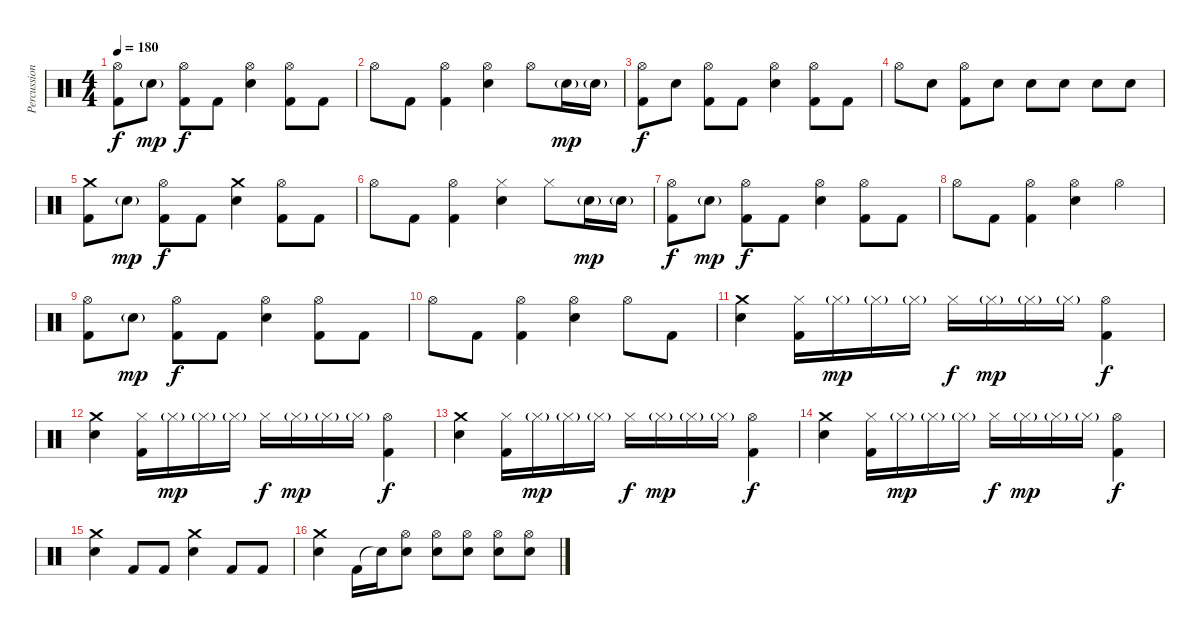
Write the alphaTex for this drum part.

\track ("Percussion" "Percussion") {instrument percussion}
\staff {score}
\articulation defaults
\ts (4 4)
\tempo 180
\clef neutral
\ks c
("Hi-Hat (open)" "Kick (hit) 2").8{dy f} "Electric Snare (hit)"{g}.8{dy mp} ("Hi-Hat (open)" "Kick (hit) 2").8{dy f} "Kick (hit) 2".8 ("Hi-Hat (open)" "Electric Snare (hit)").4 ("Hi-Hat (open)" "Kick (hit) 2").8 "Kick (hit) 2".8 |
"Hi-Hat (open)".8 "Kick (hit) 2".8 ("Hi-Hat (open)" "Kick (hit) 2").4 ("Hi-Hat (open)" "Electric Snare (hit)").4 "Hi-Hat (open)".8 "Electric Snare (hit)"{g}.16{dy mp} "Electric Snare (hit)"{g}.16 |
("Hi-Hat (open)" "Kick (hit) 2").8{dy f} "Electric Snare (hit)".8 ("Hi-Hat (open)" "Kick (hit) 2").8 "Kick (hit) 2".8 ("Hi-Hat (open)" "Electric Snare (hit)").4 ("Hi-Hat (open)" "Kick (hit) 2").8 "Kick (hit) 2".8 |
"Hi-Hat (open)".8 "Electric Snare (hit)".8 ("Hi-Hat (open)" "Kick (hit) 2").8 "Electric Snare (hit)".8 "Electric Snare (hit)".8 "Electric Snare (hit)".8 "Electric Snare (hit)".8 "Electric Snare (hit)".8 |
("Crash medium (hit)" "Kick (hit) 2").8 "Electric Snare (hit)"{g}.8{dy mp} ("Hi-Hat (open)" "Kick (hit) 2").8{dy f} "Kick (hit) 2".8 ("Crash medium (hit)" "Electric Snare (hit)").4 ("Hi-Hat (open)" "Kick (hit) 2").8 "Kick (hit) 2".8 |
"Hi-Hat (open)".8 "Kick (hit) 2".8 ("Hi-Hat (open)" "Kick (hit) 2").4 ("Hi-Hat (closed)" "Electric Snare (hit)").4 "Hi-Hat (closed)".8 "Electric Snare (hit)"{g}.16{dy mp} "Electric Snare (hit)"{g}.16 |
("Hi-Hat (open)" "Kick (hit) 2").8{dy f} "Electric Snare (hit)"{g}.8{dy mp} ("Hi-Hat (open)" "Kick (hit) 2").8{dy f} "Kick (hit) 2".8 ("Hi-Hat (open)" "Electric Snare (hit)").4 ("Hi-Hat (open)" "Kick (hit) 2").8 "Kick (hit) 2".8 |
"Hi-Hat (open)".8 "Kick (hit) 2".8 ("Hi-Hat (open)" "Kick (hit) 2").4 ("Hi-Hat (open)" "Electric Snare (hit)").4 "Hi-Hat (open)".4 |
("Hi-Hat (open)" "Kick (hit) 2").8 "Electric Snare (hit)"{g}.8{dy mp} ("Hi-Hat (open)" "Kick (hit) 2").8{dy f} "Kick (hit) 2".8 ("Hi-Hat (open)" "Electric Snare (hit)").4 ("Hi-Hat (open)" "Kick (hit) 2").8 "Kick (hit) 2".8 |
"Hi-Hat (open)".8 "Kick (hit) 2".8 ("Hi-Hat (open)" "Kick (hit) 2").4 ("Hi-Hat (open)" "Electric Snare (hit)").4 "Hi-Hat (open)".8 "Kick (hit) 2".8 |
("Crash medium (hit)" "Electric Snare (hit)").4 ("Hi-Hat (closed)" "Kick (hit) 2").16 "Hi-Hat (closed)"{g}.16{dy mp} "Hi-Hat (closed)"{g}.16 "Hi-Hat (closed)"{g}.16 "Hi-Hat (closed)".16{dy f} "Hi-Hat (closed)"{g}.16{dy mp} "Hi-Hat (closed)"{g}.16 "Hi-Hat (closed)"{g}.16 ("Hi-Hat (open)" "Kick (hit) 2").4{dy f} |
("Crash medium (hit)" "Electric Snare (hit)").4 ("Hi-Hat (closed)" "Kick (hit) 2").16 "Hi-Hat (closed)"{g}.16{dy mp} "Hi-Hat (closed)"{g}.16 "Hi-Hat (closed)"{g}.16 "Hi-Hat (closed)".16{dy f} "Hi-Hat (closed)"{g}.16{dy mp} "Hi-Hat (closed)"{g}.16 "Hi-Hat (closed)"{g}.16 ("Hi-Hat (open)" "Kick (hit) 2").4{dy f} |
("Crash medium (hit)" "Electric Snare (hit)").4 ("Hi-Hat (closed)" "Kick (hit) 2").16 "Hi-Hat (closed)"{g}.16{dy mp} "Hi-Hat (closed)"{g}.16 "Hi-Hat (closed)"{g}.16 "Hi-Hat (closed)".16{dy f} "Hi-Hat (closed)"{g}.16{dy mp} "Hi-Hat (closed)"{g}.16 "Hi-Hat (closed)"{g}.16 ("Hi-Hat (open)" "Kick (hit) 2").4{dy f} |
("Crash medium (hit)" "Electric Snare (hit)").4 ("Hi-Hat (closed)" "Kick (hit) 2").16 "Hi-Hat (closed)"{g}.16{dy mp} "Hi-Hat (closed)"{g}.16 "Hi-Hat (closed)"{g}.16 "Hi-Hat (closed)".16{dy f} "Hi-Hat (closed)"{g}.16{dy mp} "Hi-Hat (closed)"{g}.16 "Hi-Hat (closed)"{g}.16 ("Hi-Hat (open)" "Kick (hit) 2").4{dy f} |
("Crash medium (hit)" "Electric Snare (hit)").4 "Kick (hit) 2".8 "Kick (hit) 2".8 ("Crash medium (hit)" "Electric Snare (hit)").4 "Kick (hit) 2".8 "Kick (hit) 2".8 |
("Crash medium (hit)" "Electric Snare (hit)").4 "Kick (hit) 2".16 "Snare (hit)"{t}.16{volume 7} ("Hi-Hat (open)" "Electric Snare (hit)").8{volume 13} ("Hi-Hat (open)" "Electric Snare (hit)").8 ("Hi-Hat (open)" "Electric Snare (hit)").8 ("Hi-Hat (open)" "Electric Snare (hit)").8 ("Hi-Hat (open)" "Electric Snare (hit)").8
